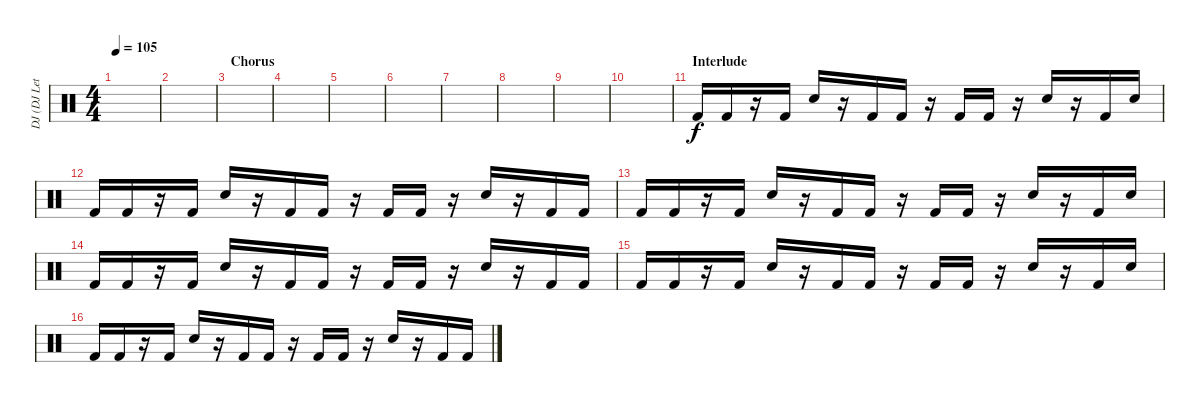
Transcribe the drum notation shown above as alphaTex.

\track ("DJ (DJ Lethal)" "DJ (DJ Let") {instrument percussion}
\staff {score}
\articulation defaults
\ts (4 4)
\tempo 105
\clef neutral
\ks c
|
|
\section ("" "Chorus")
|
|
|
|
|
|
|
|
\section ("" "Interlude")
"Kick (hit) 2".16{volume 8} "Kick (hit) 2".16 r.16 "Kick (hit) 2".16 "Hand Clap (hit)".16 r.16 "Kick (hit) 2".16 "Kick (hit) 2".16 r.16 "Kick (hit) 2".16 "Kick (hit) 2".16 r.16 "Hand Clap (hit)".16 r.16 "Kick (hit) 2".16 "Hand Clap (hit)".16 |
"Kick (hit) 2".16 "Kick (hit) 2".16 r.16 "Kick (hit) 2".16 "Hand Clap (hit)".16 r.16 "Kick (hit) 2".16 "Kick (hit) 2".16 r.16 "Kick (hit) 2".16 "Kick (hit) 2".16 r.16 "Hand Clap (hit)".16 r.16 "Kick (hit) 2".16 "Kick (hit) 2".16 |
"Kick (hit) 2".16 "Kick (hit) 2".16 r.16 "Kick (hit) 2".16 "Hand Clap (hit)".16 r.16 "Kick (hit) 2".16 "Kick (hit) 2".16 r.16 "Kick (hit) 2".16 "Kick (hit) 2".16 r.16 "Hand Clap (hit)".16 r.16 "Kick (hit) 2".16 "Hand Clap (hit)".16 |
"Kick (hit) 2".16 "Kick (hit) 2".16 r.16 "Kick (hit) 2".16 "Hand Clap (hit)".16 r.16 "Kick (hit) 2".16 "Kick (hit) 2".16 r.16 "Kick (hit) 2".16 "Kick (hit) 2".16 r.16 "Hand Clap (hit)".16 r.16 "Kick (hit) 2".16 "Kick (hit) 2".16 |
"Kick (hit) 2".16 "Kick (hit) 2".16 r.16 "Kick (hit) 2".16 "Hand Clap (hit)".16 r.16 "Kick (hit) 2".16 "Kick (hit) 2".16 r.16 "Kick (hit) 2".16 "Kick (hit) 2".16 r.16 "Hand Clap (hit)".16 r.16 "Kick (hit) 2".16 "Hand Clap (hit)".16 |
"Kick (hit) 2".16 "Kick (hit) 2".16 r.16 "Kick (hit) 2".16 "Hand Clap (hit)".16 r.16 "Kick (hit) 2".16 "Kick (hit) 2".16 r.16 "Kick (hit) 2".16 "Kick (hit) 2".16 r.16 "Hand Clap (hit)".16 r.16 "Kick (hit) 2".16 "Kick (hit) 2".16
